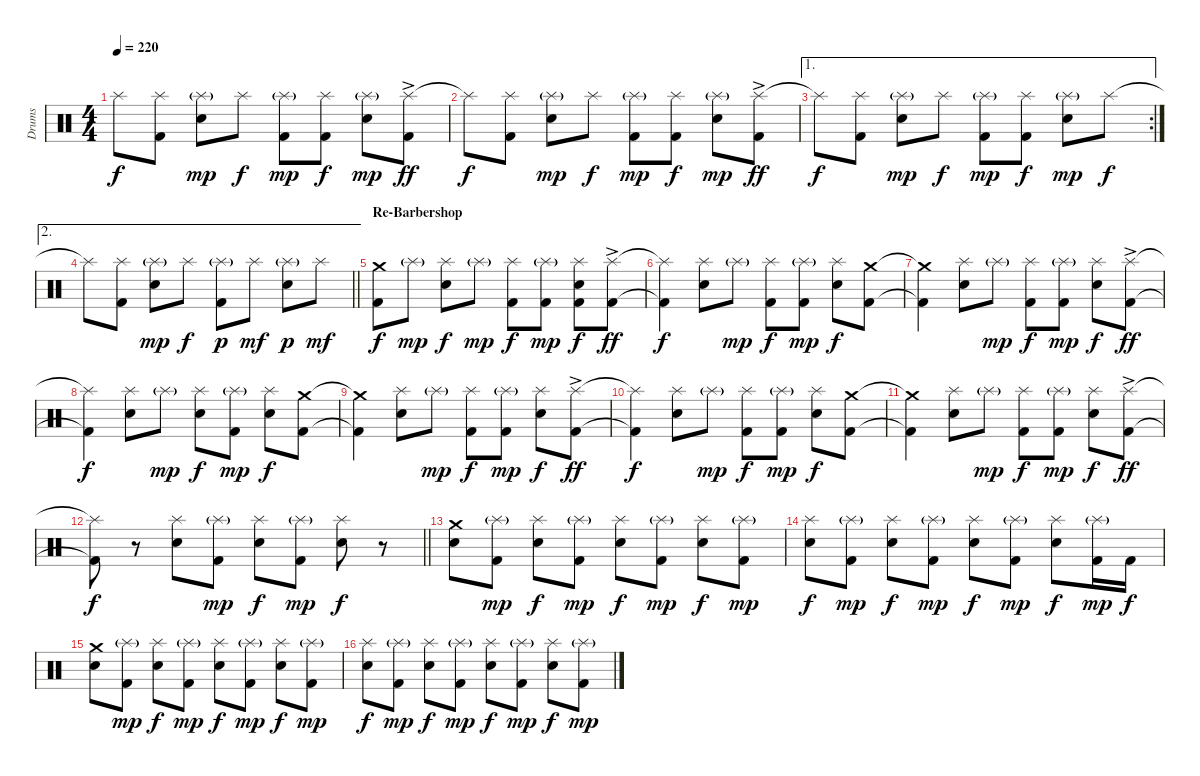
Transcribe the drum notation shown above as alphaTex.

\track ("Drums" "Drums") {instrument percussion}
\staff {score}
\articulation defaults
\ts (4 4)
\tempo 220
\clef neutral
\ks c "Splash (hit)"{t}.8{dy f}
("Splash (hit)" "Kick (hit) 2").8 ("Splash (hit)"{g} "Electric Snare (hit)").8{dy mp} "Splash (hit)".8{dy f} ("Splash (hit)"{g} "Kick (hit) 2").8{dy mp} ("Splash (hit)" "Kick (hit) 2").8{dy f} ("Splash (hit)"{g} "Electric Snare (hit)").8{dy mp} ("Splash (hit)"{ac} "Kick (hit) 2").8{dy ff} |
"Splash (hit)"{t}.8{dy f} ("Splash (hit)" "Kick (hit) 2").8 ("Splash (hit)"{g} "Electric Snare (hit)").8{dy mp} "Splash (hit)".8{dy f} ("Splash (hit)"{g} "Kick (hit) 2").8{dy mp} ("Splash (hit)" "Kick (hit) 2").8{dy f} ("Splash (hit)"{g} "Electric Snare (hit)").8{dy mp} ("Splash (hit)"{ac} "Kick (hit) 2").8{dy ff} |
\ae 1
\rc 2 "Splash (hit)"{t}.8{dy f}
("Splash (hit)" "Kick (hit) 2").8 ("Splash (hit)"{g} "Electric Snare (hit)").8{dy mp} "Splash (hit)".8{dy f} ("Splash (hit)"{g} "Kick (hit) 2").8{dy mp} ("Splash (hit)" "Kick (hit) 2").8{dy f} ("Splash (hit)"{g} "Electric Snare (hit)").8{dy mp} "Splash (hit)".8{dy f} |
\ae 2
\barLineRight lightlight "Splash (hit)"{t}.8
("Splash (hit)" "Kick (hit) 2").8 ("Splash (hit)"{g} "Electric Snare (hit)").8{dy mp} "Splash (hit)".8{dy f} ("Splash (hit)"{g} "Kick (hit) 2").8{dy p} "Splash (hit)".8{dy mf} ("Splash (hit)"{g} "Electric Snare (hit)").8{dy p} "Splash (hit)".8{dy mf} |
\section ("" "Re-Barbershop")
("Crash medium (hit)" "Kick (hit) 2").8{dy f} "Splash (hit)"{g}.8{dy mp} ("Splash (hit)" "Electric Snare (hit)").8{dy f} "Splash (hit)"{g}.8{dy mp} ("Splash (hit)" "Kick (hit) 2").8{dy f} ("Splash (hit)"{g} "Kick (hit) 2").8{dy mp} ("Splash (hit)" "Electric Snare (hit)" "Kick (hit) 2").8{dy f} ("Splash (hit)"{ac} "Kick (hit) 2").8{dy ff} |
("Splash (hit)"{t} "Kick (hit) 2"{t}).4{dy f} ("Splash (hit)" "Electric Snare (hit)").8 "Splash (hit)"{g}.8{dy mp} ("Splash (hit)" "Kick (hit) 2").8{dy f} ("Splash (hit)"{g} "Kick (hit) 2").8{dy mp} ("Splash (hit)" "Electric Snare (hit)").8{dy f} ("Crash medium (hit)" "Kick (hit) 2").8 |
("Crash medium (hit)"{t} "Kick (hit) 2"{t}).4 ("Splash (hit)" "Electric Snare (hit)").8 "Splash (hit)"{g}.8{dy mp} ("Splash (hit)" "Kick (hit) 2").8{dy f} ("Splash (hit)"{g} "Kick (hit) 2").8{dy mp} ("Splash (hit)" "Electric Snare (hit)").8{dy f} ("Splash (hit)"{ac} "Kick (hit) 2").8{dy ff} |
("Splash (hit)"{t} "Kick (hit) 2"{t}).4{dy f} ("Splash (hit)" "Electric Snare (hit)").8 "Splash (hit)"{g}.8{dy mp} ("Splash (hit)" "Electric Snare (hit)").8{dy f} ("Splash (hit)"{g} "Kick (hit) 2").8{dy mp} ("Splash (hit)" "Electric Snare (hit)").8{dy f} ("Crash medium (hit)" "Kick (hit) 2").8 |
("Crash medium (hit)"{t} "Kick (hit) 2"{t}).4 ("Splash (hit)" "Electric Snare (hit)").8 "Splash (hit)"{g}.8{dy mp} ("Splash (hit)" "Kick (hit) 2").8{dy f} ("Splash (hit)"{g} "Kick (hit) 2").8{dy mp} ("Splash (hit)" "Electric Snare (hit)").8{dy f} ("Splash (hit)"{ac} "Kick (hit) 2").8{dy ff} |
("Splash (hit)"{t} "Kick (hit) 2"{t}).4{dy f} ("Splash (hit)" "Electric Snare (hit)").8 "Splash (hit)"{g}.8{dy mp} ("Splash (hit)" "Kick (hit) 2").8{dy f} ("Splash (hit)"{g} "Kick (hit) 2").8{dy mp} ("Splash (hit)" "Electric Snare (hit)").8{dy f} ("Crash medium (hit)" "Kick (hit) 2").8 |
("Crash medium (hit)"{t} "Kick (hit) 2"{t}).4 ("Splash (hit)" "Electric Snare (hit)").8 "Splash (hit)"{g}.8{dy mp} ("Splash (hit)" "Kick (hit) 2").8{dy f} ("Splash (hit)"{g} "Kick (hit) 2").8{dy mp} ("Splash (hit)" "Electric Snare (hit)").8{dy f} ("Splash (hit)"{ac} "Kick (hit) 2").8{dy ff} |
\barLineRight lightlight
("Splash (hit)"{t} "Kick (hit) 2"{t}).8{dy f} r.8 ("Splash (hit)" "Electric Snare (hit)").8 ("Splash (hit)"{g} "Kick (hit) 2").8{dy mp} ("Splash (hit)" "Electric Snare (hit)").8{dy f} ("Splash (hit)"{g} "Kick (hit) 2").8{dy mp} ("Splash (hit)" "Electric Snare (hit)").8{dy f} r.8 |
("Crash medium (hit)" "Electric Snare (hit)").8 ("Splash (hit)"{g} "Kick (hit) 2").8{dy mp} ("Splash (hit)" "Electric Snare (hit)").8{dy f} ("Splash (hit)"{g} "Kick (hit) 2").8{dy mp} ("Splash (hit)" "Electric Snare (hit)").8{dy f} ("Splash (hit)"{g} "Kick (hit) 2").8{dy mp} ("Splash (hit)" "Electric Snare (hit)").8{dy f} ("Splash (hit)"{g} "Kick (hit) 2").8{dy mp} |
("Splash (hit)" "Electric Snare (hit)").8{dy f} ("Splash (hit)"{g} "Kick (hit) 2").8{dy mp} ("Splash (hit)" "Electric Snare (hit)").8{dy f} ("Splash (hit)"{g} "Kick (hit) 2").8{dy mp} ("Splash (hit)" "Electric Snare (hit)").8{dy f} ("Splash (hit)"{g} "Kick (hit) 2").8{dy mp} ("Splash (hit)" "Electric Snare (hit)").8{dy f} ("Splash (hit)"{g} "Kick (hit) 2").16{dy mp} "Kick (hit) 2".16{dy f} |
("Crash medium (hit)" "Electric Snare (hit)").8 ("Splash (hit)"{g} "Kick (hit) 2").8{dy mp} ("Splash (hit)" "Electric Snare (hit)").8{dy f} ("Splash (hit)"{g} "Kick (hit) 2").8{dy mp} ("Splash (hit)" "Electric Snare (hit)").8{dy f} ("Splash (hit)"{g} "Kick (hit) 2").8{dy mp} ("Splash (hit)" "Electric Snare (hit)").8{dy f} ("Splash (hit)"{g} "Kick (hit) 2").8{dy mp} |
("Splash (hit)" "Electric Snare (hit)").8{dy f} ("Splash (hit)"{g} "Kick (hit) 2").8{dy mp} ("Splash (hit)" "Electric Snare (hit)").8{dy f} ("Splash (hit)"{g} "Kick (hit) 2").8{dy mp} ("Splash (hit)" "Electric Snare (hit)").8{dy f} ("Splash (hit)"{g} "Kick (hit) 2").8{dy mp} ("Splash (hit)" "Electric Snare (hit)").8{dy f} ("Splash (hit)"{g} "Kick (hit) 2").8{dy mp}
